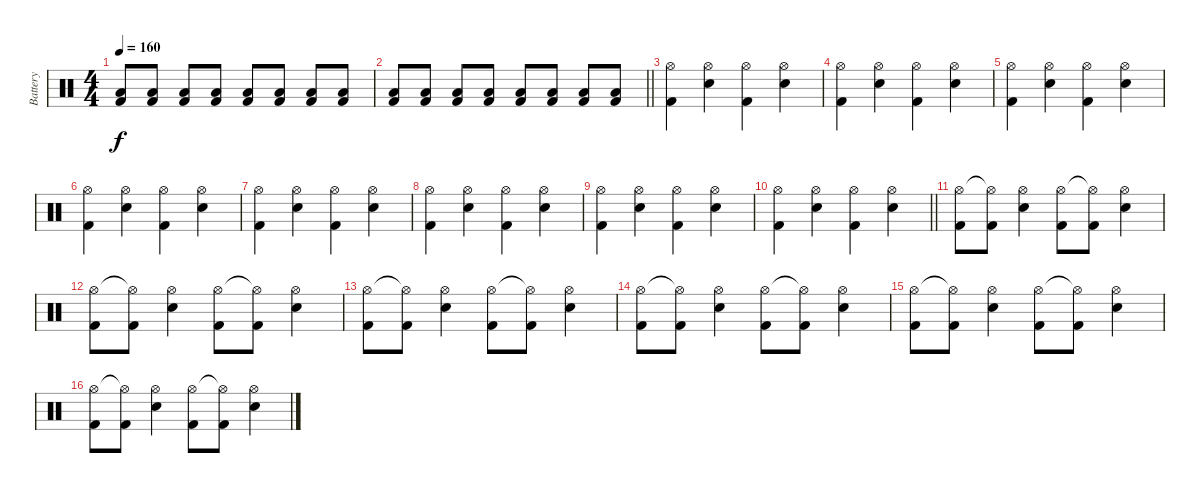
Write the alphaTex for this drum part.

\track ("Battery" "Battery") {instrument percussion}
\staff {score}
\articulation defaults
\ts (4 4)
\tempo 160
\clef neutral
\ks c
("Low Tom (hit)" "Kick (hit) 2").8{dy f} ("Low Tom (hit)" "Kick (hit) 2").8 ("Low Tom (hit)" "Kick (hit) 2").8 ("Low Tom (hit)" "Kick (hit) 2").8 ("Low Tom (hit)" "Kick (hit) 2").8 ("Low Tom (hit)" "Kick (hit) 2").8 ("Low Tom (hit)" "Kick (hit) 2").8 ("Low Tom (hit)" "Kick (hit) 2").8 |
\barLineRight lightlight
("Low Tom (hit)" "Kick (hit) 2").8 ("Low Tom (hit)" "Kick (hit) 2").8 ("Low Tom (hit)" "Kick (hit) 2").8 ("Low Tom (hit)" "Kick (hit) 2").8 ("Low Tom (hit)" "Kick (hit) 2").8 ("Low Tom (hit)" "Kick (hit) 2").8 ("Low Tom (hit)" "Kick (hit) 2").8 ("Low Tom (hit)" "Kick (hit) 2").8 |
("Hi-Hat (open)" "Kick (hit) 2").4 ("Hi-Hat (open)" "Snare (hit) 2").4 ("Hi-Hat (open)" "Kick (hit) 2").4 ("Hi-Hat (open)" "Snare (hit) 2").4 |
("Hi-Hat (open)" "Kick (hit) 2").4 ("Hi-Hat (open)" "Snare (hit) 2").4 ("Hi-Hat (open)" "Kick (hit) 2").4 ("Hi-Hat (open)" "Snare (hit) 2").4 |
("Hi-Hat (open)" "Kick (hit) 2").4 ("Hi-Hat (open)" "Snare (hit) 2").4 ("Hi-Hat (open)" "Kick (hit) 2").4 ("Hi-Hat (open)" "Snare (hit) 2").4 |
("Hi-Hat (open)" "Kick (hit) 2").4 ("Hi-Hat (open)" "Snare (hit) 2").4 ("Hi-Hat (open)" "Kick (hit) 2").4 ("Hi-Hat (open)" "Snare (hit) 2").4 |
("Hi-Hat (open)" "Kick (hit) 2").4 ("Hi-Hat (open)" "Snare (hit) 2").4 ("Hi-Hat (open)" "Kick (hit) 2").4 ("Hi-Hat (open)" "Snare (hit) 2").4 |
("Hi-Hat (open)" "Kick (hit) 2").4 ("Hi-Hat (open)" "Snare (hit) 2").4 ("Hi-Hat (open)" "Kick (hit) 2").4 ("Hi-Hat (open)" "Snare (hit) 2").4 |
("Hi-Hat (open)" "Kick (hit) 2").4 ("Hi-Hat (open)" "Snare (hit) 2").4 ("Hi-Hat (open)" "Kick (hit) 2").4 ("Hi-Hat (open)" "Snare (hit) 2").4 |
\barLineRight lightlight
("Hi-Hat (open)" "Kick (hit) 2").4 ("Hi-Hat (open)" "Snare (hit) 2").4 ("Hi-Hat (open)" "Kick (hit) 2").4 ("Hi-Hat (open)" "Snare (hit) 2").4 |
("Hi-Hat (open)" "Kick (hit) 2").8 ("Hi-Hat (open)"{t} "Kick (hit) 2").8 ("Hi-Hat (open)" "Snare (hit) 2").4 ("Hi-Hat (open)" "Kick (hit) 2").8 ("Hi-Hat (open)"{t} "Kick (hit) 2").8 ("Hi-Hat (open)" "Snare (hit) 2").4 |
("Hi-Hat (open)" "Kick (hit) 2").8 ("Hi-Hat (open)"{t} "Kick (hit) 2").8 ("Hi-Hat (open)" "Snare (hit) 2").4 ("Hi-Hat (open)" "Kick (hit) 2").8 ("Hi-Hat (open)"{t} "Kick (hit) 2").8 ("Hi-Hat (open)" "Snare (hit) 2").4 |
("Hi-Hat (open)" "Kick (hit) 2").8 ("Hi-Hat (open)"{t} "Kick (hit) 2").8 ("Hi-Hat (open)" "Snare (hit) 2").4 ("Hi-Hat (open)" "Kick (hit) 2").8 ("Hi-Hat (open)"{t} "Kick (hit) 2").8 ("Hi-Hat (open)" "Snare (hit) 2").4 |
("Hi-Hat (open)" "Kick (hit) 2").8 ("Hi-Hat (open)"{t} "Kick (hit) 2").8 ("Hi-Hat (open)" "Snare (hit) 2").4 ("Hi-Hat (open)" "Kick (hit) 2").8 ("Hi-Hat (open)"{t} "Kick (hit) 2").8 ("Hi-Hat (open)" "Snare (hit) 2").4 |
("Hi-Hat (open)" "Kick (hit) 2").8 ("Hi-Hat (open)"{t} "Kick (hit) 2").8 ("Hi-Hat (open)" "Snare (hit) 2").4 ("Hi-Hat (open)" "Kick (hit) 2").8 ("Hi-Hat (open)"{t} "Kick (hit) 2").8 ("Hi-Hat (open)" "Snare (hit) 2").4 |
("Hi-Hat (open)" "Kick (hit) 2").8 ("Hi-Hat (open)"{t} "Kick (hit) 2").8 ("Hi-Hat (open)" "Snare (hit) 2").4 ("Hi-Hat (open)" "Kick (hit) 2").8 ("Hi-Hat (open)"{t} "Kick (hit) 2").8 ("Hi-Hat (open)" "Snare (hit) 2").4
